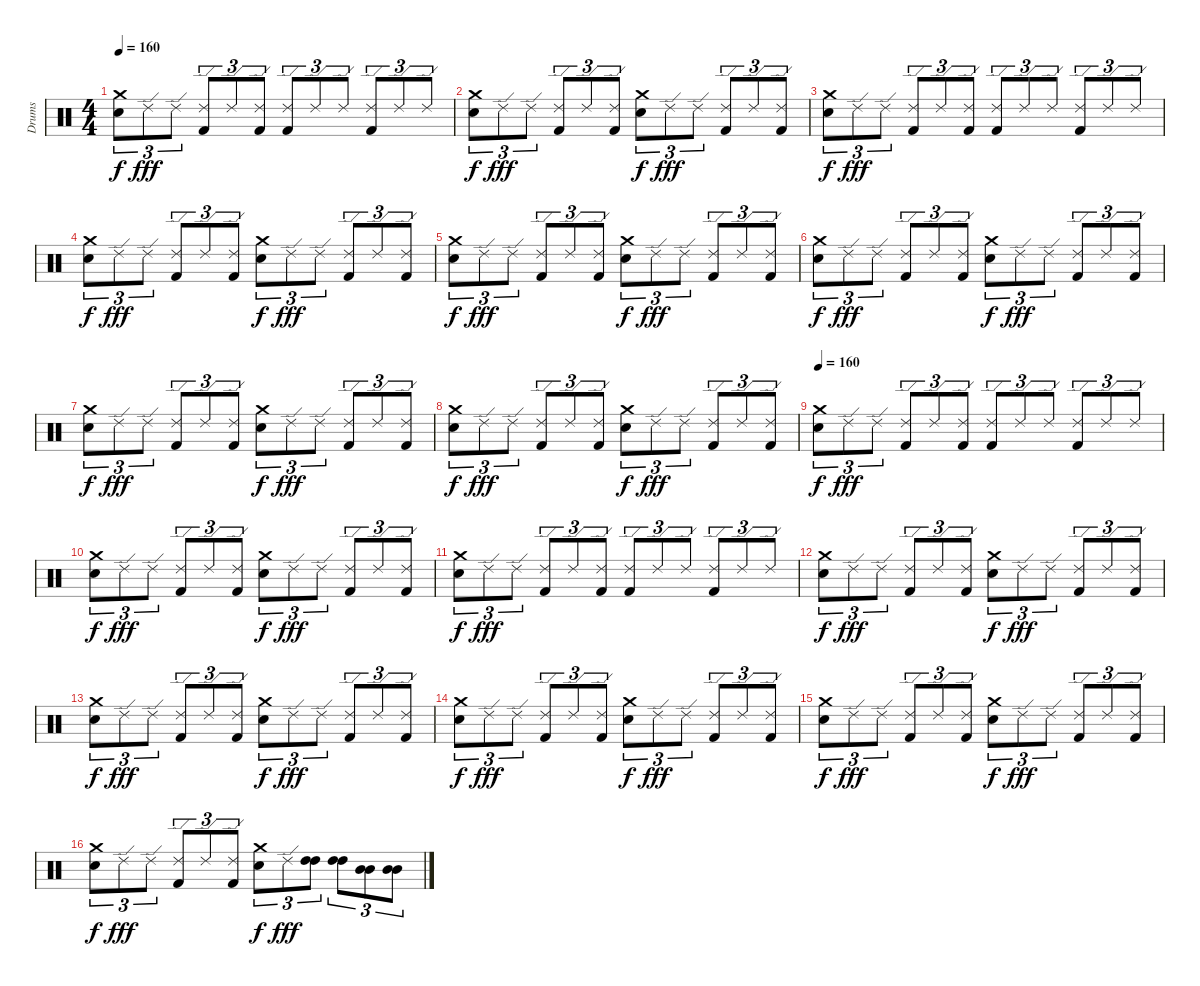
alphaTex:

\track ("Drums" "Drums") {instrument percussion}
\staff {score}
\articulation defaults
\ts (4 4)
\tempo 160
\clef neutral
\ks c
("Crash medium (hit)" "Electric Snare (hit)").8{tu (3 2) dy f} "Ride (edge) 2".8{tu (3 2) dy fff} "Ride (edge) 2".8{tu (3 2)} ("Ride (edge) 2" "Kick (hit) 2").8{tu (3 2)} "Ride (edge) 2".8{tu (3 2)} ("Ride (edge) 2" "Kick (hit) 2").8{tu (3 2)} ("Ride (edge) 2" "Kick (hit) 2").8{tu (3 2)} "Ride (edge) 2".8{tu (3 2)} "Ride (edge) 2".8{tu (3 2)} ("Ride (edge) 2" "Kick (hit) 2").8{tu (3 2)} "Ride (edge) 2".8{tu (3 2)} "Ride (edge) 2".8{tu (3 2)} |
("Crash medium (hit)" "Electric Snare (hit)").8{tu (3 2) dy f} "Ride (edge) 2".8{tu (3 2) dy fff} "Ride (edge) 2".8{tu (3 2)} ("Ride (edge) 2" "Kick (hit) 2").8{tu (3 2)} "Ride (edge) 2".8{tu (3 2)} ("Ride (edge) 2" "Kick (hit) 2").8{tu (3 2)} ("Crash medium (hit)" "Electric Snare (hit)").8{tu (3 2) dy f} "Ride (edge) 2".8{tu (3 2) dy fff} "Ride (edge) 2".8{tu (3 2)} ("Ride (edge) 2" "Kick (hit) 2").8{tu (3 2)} "Ride (edge) 2".8{tu (3 2)} ("Ride (edge) 2" "Kick (hit) 2").8{tu (3 2)} |
("Crash medium (hit)" "Electric Snare (hit)").8{tu (3 2) dy f} "Ride (edge) 2".8{tu (3 2) dy fff} "Ride (edge) 2".8{tu (3 2)} ("Ride (edge) 2" "Kick (hit) 2").8{tu (3 2)} "Ride (edge) 2".8{tu (3 2)} ("Ride (edge) 2" "Kick (hit) 2").8{tu (3 2)} ("Ride (edge) 2" "Kick (hit) 2").8{tu (3 2)} "Ride (edge) 2".8{tu (3 2)} "Ride (edge) 2".8{tu (3 2)} ("Ride (edge) 2" "Kick (hit) 2").8{tu (3 2)} "Ride (edge) 2".8{tu (3 2)} "Ride (edge) 2".8{tu (3 2)} |
("Crash medium (hit)" "Electric Snare (hit)").8{tu (3 2) dy f} "Ride (edge) 2".8{tu (3 2) dy fff} "Ride (edge) 2".8{tu (3 2)} ("Ride (edge) 2" "Kick (hit) 2").8{tu (3 2)} "Ride (edge) 2".8{tu (3 2)} ("Ride (edge) 2" "Kick (hit) 2").8{tu (3 2)} ("Crash medium (hit)" "Electric Snare (hit)").8{tu (3 2) dy f} "Ride (edge) 2".8{tu (3 2) dy fff} "Ride (edge) 2".8{tu (3 2)} ("Ride (edge) 2" "Kick (hit) 2").8{tu (3 2)} "Ride (edge) 2".8{tu (3 2)} ("Ride (edge) 2" "Kick (hit) 2").8{tu (3 2)} |
("Crash medium (hit)" "Electric Snare (hit)").8{tu (3 2) dy f} "Ride (edge) 2".8{tu (3 2) dy fff} "Ride (edge) 2".8{tu (3 2)} ("Ride (edge) 2" "Kick (hit) 2").8{tu (3 2)} "Ride (edge) 2".8{tu (3 2)} ("Ride (edge) 2" "Kick (hit) 2").8{tu (3 2)} ("Crash medium (hit)" "Electric Snare (hit)").8{tu (3 2) dy f} "Ride (edge) 2".8{tu (3 2) dy fff} "Ride (edge) 2".8{tu (3 2)} ("Ride (edge) 2" "Kick (hit) 2").8{tu (3 2)} "Ride (edge) 2".8{tu (3 2)} ("Ride (edge) 2" "Kick (hit) 2").8{tu (3 2)} |
("Crash medium (hit)" "Electric Snare (hit)").8{tu (3 2) dy f} "Ride (edge) 2".8{tu (3 2) dy fff} "Ride (edge) 2".8{tu (3 2)} ("Ride (edge) 2" "Kick (hit) 2").8{tu (3 2)} "Ride (edge) 2".8{tu (3 2)} ("Ride (edge) 2" "Kick (hit) 2").8{tu (3 2)} ("Crash medium (hit)" "Electric Snare (hit)").8{tu (3 2) dy f} "Ride (edge) 2".8{tu (3 2) dy fff} "Ride (edge) 2".8{tu (3 2)} ("Ride (edge) 2" "Kick (hit) 2").8{tu (3 2)} "Ride (edge) 2".8{tu (3 2)} ("Ride (edge) 2" "Kick (hit) 2").8{tu (3 2)} |
("Crash medium (hit)" "Electric Snare (hit)").8{tu (3 2) dy f} "Ride (edge) 2".8{tu (3 2) dy fff} "Ride (edge) 2".8{tu (3 2)} ("Ride (edge) 2" "Kick (hit) 2").8{tu (3 2)} "Ride (edge) 2".8{tu (3 2)} ("Ride (edge) 2" "Kick (hit) 2").8{tu (3 2)} ("Crash medium (hit)" "Electric Snare (hit)").8{tu (3 2) dy f} "Ride (edge) 2".8{tu (3 2) dy fff} "Ride (edge) 2".8{tu (3 2)} ("Ride (edge) 2" "Kick (hit) 2").8{tu (3 2)} "Ride (edge) 2".8{tu (3 2)} ("Ride (edge) 2" "Kick (hit) 2").8{tu (3 2)} |
("Crash medium (hit)" "Electric Snare (hit)").8{tu (3 2) dy f} "Ride (edge) 2".8{tu (3 2) dy fff} "Ride (edge) 2".8{tu (3 2)} ("Ride (edge) 2" "Kick (hit) 2").8{tu (3 2)} "Ride (edge) 2".8{tu (3 2)} ("Ride (edge) 2" "Kick (hit) 2").8{tu (3 2)} ("Crash medium (hit)" "Electric Snare (hit)").8{tu (3 2) dy f} "Ride (edge) 2".8{tu (3 2) dy fff} "Ride (edge) 2".8{tu (3 2)} ("Ride (edge) 2" "Kick (hit) 2").8{tu (3 2)} "Ride (edge) 2".8{tu (3 2)} ("Ride (edge) 2" "Kick (hit) 2").8{tu (3 2)} |
\tempo 160
("Crash medium (hit)" "Electric Snare (hit)").8{tu (3 2) dy f} "Ride (edge) 2".8{tu (3 2) dy fff} "Ride (edge) 2".8{tu (3 2)} ("Ride (edge) 2" "Kick (hit) 2").8{tu (3 2)} "Ride (edge) 2".8{tu (3 2)} ("Ride (edge) 2" "Kick (hit) 2").8{tu (3 2)} ("Ride (edge) 2" "Kick (hit) 2").8{tu (3 2)} "Ride (edge) 2".8{tu (3 2)} "Ride (edge) 2".8{tu (3 2)} ("Ride (edge) 2" "Kick (hit) 2").8{tu (3 2)} "Ride (edge) 2".8{tu (3 2)} "Ride (edge) 2".8{tu (3 2)} |
("Crash medium (hit)" "Electric Snare (hit)").8{tu (3 2) dy f} "Ride (edge) 2".8{tu (3 2) dy fff} "Ride (edge) 2".8{tu (3 2)} ("Ride (edge) 2" "Kick (hit) 2").8{tu (3 2)} "Ride (edge) 2".8{tu (3 2)} ("Ride (edge) 2" "Kick (hit) 2").8{tu (3 2)} ("Crash medium (hit)" "Electric Snare (hit)").8{tu (3 2) dy f} "Ride (edge) 2".8{tu (3 2) dy fff} "Ride (edge) 2".8{tu (3 2)} ("Ride (edge) 2" "Kick (hit) 2").8{tu (3 2)} "Ride (edge) 2".8{tu (3 2)} ("Ride (edge) 2" "Kick (hit) 2").8{tu (3 2)} |
("Crash medium (hit)" "Electric Snare (hit)").8{tu (3 2) dy f} "Ride (edge) 2".8{tu (3 2) dy fff} "Ride (edge) 2".8{tu (3 2)} ("Ride (edge) 2" "Kick (hit) 2").8{tu (3 2)} "Ride (edge) 2".8{tu (3 2)} ("Ride (edge) 2" "Kick (hit) 2").8{tu (3 2)} ("Ride (edge) 2" "Kick (hit) 2").8{tu (3 2)} "Ride (edge) 2".8{tu (3 2)} "Ride (edge) 2".8{tu (3 2)} ("Ride (edge) 2" "Kick (hit) 2").8{tu (3 2)} "Ride (edge) 2".8{tu (3 2)} "Ride (edge) 2".8{tu (3 2)} |
("Crash medium (hit)" "Electric Snare (hit)").8{tu (3 2) dy f} "Ride (edge) 2".8{tu (3 2) dy fff} "Ride (edge) 2".8{tu (3 2)} ("Ride (edge) 2" "Kick (hit) 2").8{tu (3 2)} "Ride (edge) 2".8{tu (3 2)} ("Ride (edge) 2" "Kick (hit) 2").8{tu (3 2)} ("Crash medium (hit)" "Electric Snare (hit)").8{tu (3 2) dy f} "Ride (edge) 2".8{tu (3 2) dy fff} "Ride (edge) 2".8{tu (3 2)} ("Ride (edge) 2" "Kick (hit) 2").8{tu (3 2)} "Ride (edge) 2".8{tu (3 2)} ("Ride (edge) 2" "Kick (hit) 2").8{tu (3 2)} |
("Crash medium (hit)" "Electric Snare (hit)").8{tu (3 2) dy f} "Ride (edge) 2".8{tu (3 2) dy fff} "Ride (edge) 2".8{tu (3 2)} ("Ride (edge) 2" "Kick (hit) 2").8{tu (3 2)} "Ride (edge) 2".8{tu (3 2)} ("Ride (edge) 2" "Kick (hit) 2").8{tu (3 2)} ("Crash medium (hit)" "Electric Snare (hit)").8{tu (3 2) dy f} "Ride (edge) 2".8{tu (3 2) dy fff} "Ride (edge) 2".8{tu (3 2)} ("Ride (edge) 2" "Kick (hit) 2").8{tu (3 2)} "Ride (edge) 2".8{tu (3 2)} ("Ride (edge) 2" "Kick (hit) 2").8{tu (3 2)} |
("Crash medium (hit)" "Electric Snare (hit)").8{tu (3 2) dy f} "Ride (edge) 2".8{tu (3 2) dy fff} "Ride (edge) 2".8{tu (3 2)} ("Ride (edge) 2" "Kick (hit) 2").8{tu (3 2)} "Ride (edge) 2".8{tu (3 2)} ("Ride (edge) 2" "Kick (hit) 2").8{tu (3 2)} ("Crash medium (hit)" "Electric Snare (hit)").8{tu (3 2) dy f} "Ride (edge) 2".8{tu (3 2) dy fff} "Ride (edge) 2".8{tu (3 2)} ("Ride (edge) 2" "Kick (hit) 2").8{tu (3 2)} "Ride (edge) 2".8{tu (3 2)} ("Ride (edge) 2" "Kick (hit) 2").8{tu (3 2)} |
("Crash medium (hit)" "Electric Snare (hit)").8{tu (3 2) dy f} "Ride (edge) 2".8{tu (3 2) dy fff} "Ride (edge) 2".8{tu (3 2)} ("Ride (edge) 2" "Kick (hit) 2").8{tu (3 2)} "Ride (edge) 2".8{tu (3 2)} ("Ride (edge) 2" "Kick (hit) 2").8{tu (3 2)} ("Crash medium (hit)" "Electric Snare (hit)").8{tu (3 2) dy f} "Ride (edge) 2".8{tu (3 2) dy fff} "Ride (edge) 2".8{tu (3 2)} ("Ride (edge) 2" "Kick (hit) 2").8{tu (3 2)} "Ride (edge) 2".8{tu (3 2)} ("Ride (edge) 2" "Kick (hit) 2").8{tu (3 2)} |
("Crash medium (hit)" "Electric Snare (hit)").8{tu (3 2) dy f} "Ride (edge) 2".8{tu (3 2) dy fff} "Ride (edge) 2".8{tu (3 2)} ("Ride (edge) 2" "Kick (hit) 2").8{tu (3 2)} "Ride (edge) 2".8{tu (3 2)} ("Ride (edge) 2" "Kick (hit) 2").8{tu (3 2)} ("Crash medium (hit)" "Electric Snare (hit)").8{tu (3 2) dy f} "Ride (edge) 2".8{tu (3 2) dy fff} ("High Tom (hit)" "High Tom (hit)").8{tu (3 2)} ("High Tom (hit)" "High Tom (hit)").8{tu (3 2)} ("Mid Tom (hit)" "Mid Tom (hit)").8{tu (3 2)} ("Mid Tom (hit)" "Mid Tom (hit)").8{tu (3 2)}
